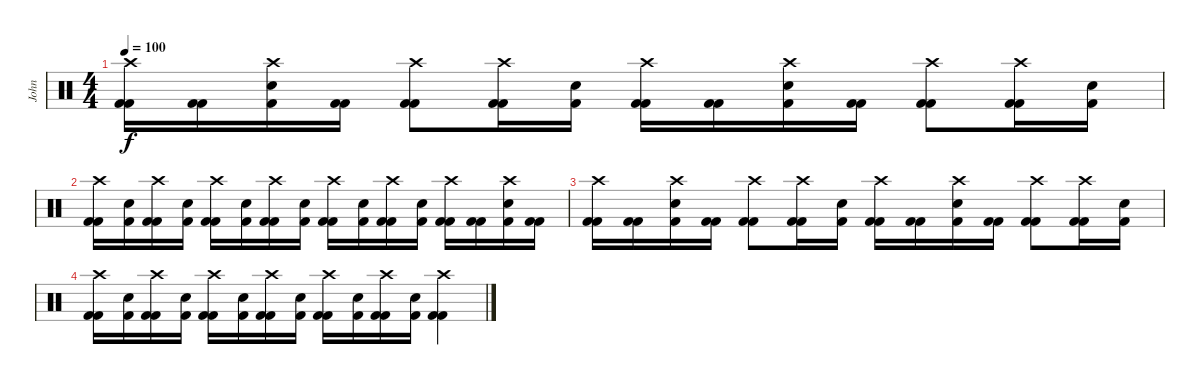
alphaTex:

\track ("John" "John") {instrument percussion}
\staff {score}
\articulation defaults
\ts (4 4)
\tempo 100
\clef neutral
\ks c
("Crash high (hit)" "Kick (hit) 2" "Kick (hit) 2").16{dy f} ("Kick (hit) 2" "Kick (hit) 2").16 ("Crash high (hit)" "Kick (hit) 2" "Electric Snare (hit)").16 ("Kick (hit) 2" "Kick (hit) 2").16 ("Crash high (hit)" "Kick (hit) 2" "Kick (hit) 2").8 ("Crash high (hit)" "Kick (hit) 2" "Kick (hit) 2").16 ("Kick (hit) 2" "Electric Snare (hit)").16 ("Crash high (hit)" "Kick (hit) 2" "Kick (hit) 2").16 ("Kick (hit) 2" "Kick (hit) 2").16 ("Crash high (hit)" "Kick (hit) 2" "Electric Snare (hit)").16 ("Kick (hit) 2" "Kick (hit) 2").16 ("Crash high (hit)" "Kick (hit) 2" "Kick (hit) 2").8 ("Crash high (hit)" "Kick (hit) 2" "Kick (hit) 2").16 ("Kick (hit) 2" "Electric Snare (hit)").16 |
("Crash high (hit)" "Kick (hit) 2" "Kick (hit) 2").16 ("Kick (hit) 2" "Electric Snare (hit)").16 ("Crash high (hit)" "Kick (hit) 2" "Kick (hit) 2").16 ("Kick (hit) 2" "Electric Snare (hit)").16 ("Crash high (hit)" "Kick (hit) 2" "Kick (hit) 2").16 ("Kick (hit) 2" "Electric Snare (hit)").16 ("Crash high (hit)" "Kick (hit) 2" "Kick (hit) 2").16 ("Kick (hit) 2" "Electric Snare (hit)").16 ("Crash high (hit)" "Kick (hit) 2" "Kick (hit) 2").16 ("Kick (hit) 2" "Electric Snare (hit)").16 ("Crash high (hit)" "Kick (hit) 2" "Kick (hit) 2").16 ("Kick (hit) 2" "Electric Snare (hit)").16 ("Crash high (hit)" "Kick (hit) 2" "Kick (hit) 2").16 ("Kick (hit) 2" "Kick (hit) 2").16 ("Crash high (hit)" "Kick (hit) 2" "Electric Snare (hit)").16 ("Kick (hit) 2" "Kick (hit) 2").16 |
("Crash high (hit)" "Kick (hit) 2" "Kick (hit) 2").16 ("Kick (hit) 2" "Kick (hit) 2").16 ("Crash high (hit)" "Kick (hit) 2" "Electric Snare (hit)").16 ("Kick (hit) 2" "Kick (hit) 2").16 ("Crash high (hit)" "Kick (hit) 2" "Kick (hit) 2").8 ("Crash high (hit)" "Kick (hit) 2" "Kick (hit) 2").16 ("Kick (hit) 2" "Electric Snare (hit)").16 ("Crash high (hit)" "Kick (hit) 2" "Kick (hit) 2").16 ("Kick (hit) 2" "Kick (hit) 2").16 ("Crash high (hit)" "Kick (hit) 2" "Electric Snare (hit)").16 ("Kick (hit) 2" "Kick (hit) 2").16 ("Crash high (hit)" "Kick (hit) 2" "Kick (hit) 2").8 ("Crash high (hit)" "Kick (hit) 2" "Kick (hit) 2").16 ("Kick (hit) 2" "Electric Snare (hit)").16 |
("Crash high (hit)" "Kick (hit) 2" "Kick (hit) 2").16 ("Kick (hit) 2" "Electric Snare (hit)").16 ("Crash high (hit)" "Kick (hit) 2" "Kick (hit) 2").16 ("Kick (hit) 2" "Electric Snare (hit)").16 ("Crash high (hit)" "Kick (hit) 2" "Kick (hit) 2").16 ("Kick (hit) 2" "Electric Snare (hit)").16 ("Crash high (hit)" "Kick (hit) 2" "Kick (hit) 2").16 ("Kick (hit) 2" "Electric Snare (hit)").16 ("Crash high (hit)" "Kick (hit) 2" "Kick (hit) 2").16 ("Kick (hit) 2" "Electric Snare (hit)").16 ("Crash high (hit)" "Kick (hit) 2" "Kick (hit) 2").16 ("Kick (hit) 2" "Electric Snare (hit)").16 ("Crash high (hit)" "Kick (hit) 2" "Kick (hit) 2").4
